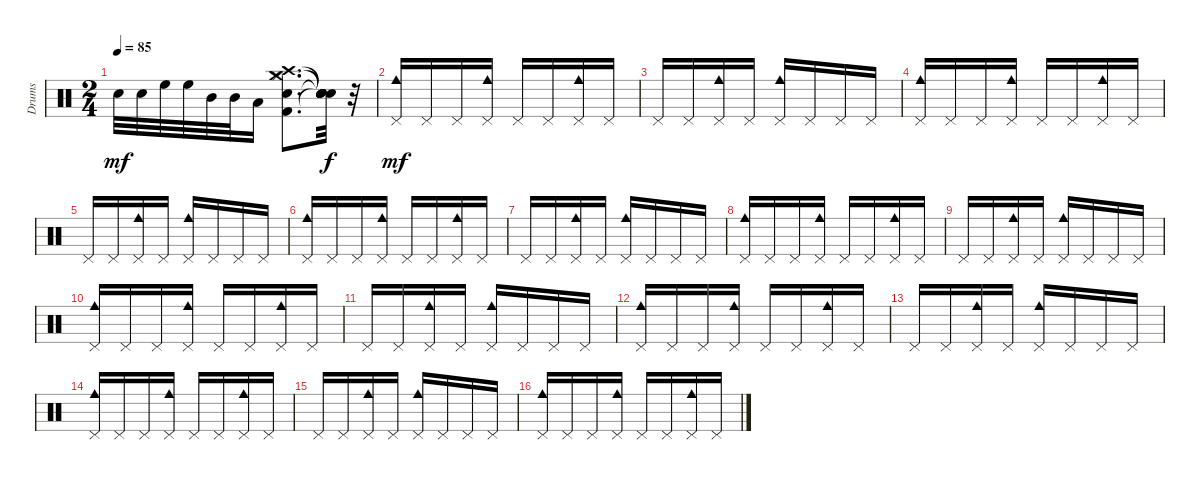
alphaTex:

\track ("Drums" "Drums") {instrument percussion}
\staff {score}
\articulation defaults
\ts (2 4)
\tempo 85
\clef neutral
\ks c "Snare (hit) 2".32{dy mf} "Snare (hit) 2".32 "High Floor Tom (hit)".32 "High Floor Tom (hit)".32 "Mid Tom (hit)".32 "Mid Tom (hit)".32 "Low Floor Tom (hit)".16
("Hi-Hat (closed)" "Crash medium (hit)" "Snare (hit) 2" "Kick (hit) 2" "Crash high (hit)").8{d} ("Snare (hit)"{t} "Snare (hit)"{t} "Snare (hit)"{t} "Snare (hit)"{t} "Snare (hit)"{t}).32{dy f} r.32 |
("Pedal Hi-Hat (hit)" "Cowbell medium (hit)").16{dy mf} "Pedal Hi-Hat (hit)".16 "Pedal Hi-Hat (hit)".16 ("Pedal Hi-Hat (hit)" "Cowbell medium (hit)").16 "Pedal Hi-Hat (hit)".16 "Pedal Hi-Hat (hit)".16 ("Pedal Hi-Hat (hit)" "Cowbell medium (hit)").16 "Pedal Hi-Hat (hit)".16 |
"Pedal Hi-Hat (hit)".16 "Pedal Hi-Hat (hit)".16 ("Pedal Hi-Hat (hit)" "Cowbell medium (hit)").16 "Pedal Hi-Hat (hit)".16 ("Pedal Hi-Hat (hit)" "Cowbell medium (hit)").16 "Pedal Hi-Hat (hit)".16 "Pedal Hi-Hat (hit)".16 "Pedal Hi-Hat (hit)".16 |
("Pedal Hi-Hat (hit)" "Cowbell medium (hit)").16 "Pedal Hi-Hat (hit)".16 "Pedal Hi-Hat (hit)".16 ("Pedal Hi-Hat (hit)" "Cowbell medium (hit)").16 "Pedal Hi-Hat (hit)".16 "Pedal Hi-Hat (hit)".16 ("Pedal Hi-Hat (hit)" "Cowbell medium (hit)").16 "Pedal Hi-Hat (hit)".16 |
"Pedal Hi-Hat (hit)".16 "Pedal Hi-Hat (hit)".16 ("Pedal Hi-Hat (hit)" "Cowbell medium (hit)").16 "Pedal Hi-Hat (hit)".16 ("Pedal Hi-Hat (hit)" "Cowbell medium (hit)").16 "Pedal Hi-Hat (hit)".16 "Pedal Hi-Hat (hit)".16 "Pedal Hi-Hat (hit)".16 |
("Pedal Hi-Hat (hit)" "Cowbell medium (hit)").16 "Pedal Hi-Hat (hit)".16 "Pedal Hi-Hat (hit)".16 ("Pedal Hi-Hat (hit)" "Cowbell medium (hit)").16 "Pedal Hi-Hat (hit)".16 "Pedal Hi-Hat (hit)".16 ("Pedal Hi-Hat (hit)" "Cowbell medium (hit)").16 "Pedal Hi-Hat (hit)".16 |
"Pedal Hi-Hat (hit)".16 "Pedal Hi-Hat (hit)".16 ("Pedal Hi-Hat (hit)" "Cowbell medium (hit)").16 "Pedal Hi-Hat (hit)".16 ("Pedal Hi-Hat (hit)" "Cowbell medium (hit)").16 "Pedal Hi-Hat (hit)".16 "Pedal Hi-Hat (hit)".16 "Pedal Hi-Hat (hit)".16 |
("Pedal Hi-Hat (hit)" "Cowbell medium (hit)").16 "Pedal Hi-Hat (hit)".16 "Pedal Hi-Hat (hit)".16 ("Pedal Hi-Hat (hit)" "Cowbell medium (hit)").16 "Pedal Hi-Hat (hit)".16 "Pedal Hi-Hat (hit)".16 ("Cowbell medium (hit)" "Pedal Hi-Hat (hit)").16 "Pedal Hi-Hat (hit)".16 |
"Pedal Hi-Hat (hit)".16 "Pedal Hi-Hat (hit)".16 ("Pedal Hi-Hat (hit)" "Cowbell medium (hit)").16 "Pedal Hi-Hat (hit)".16 ("Pedal Hi-Hat (hit)" "Cowbell medium (hit)").16 "Pedal Hi-Hat (hit)".16 "Pedal Hi-Hat (hit)".16 "Pedal Hi-Hat (hit)".16 |
("Cowbell medium (hit)" "Pedal Hi-Hat (hit)").16 "Pedal Hi-Hat (hit)".16 "Pedal Hi-Hat (hit)".16 ("Pedal Hi-Hat (hit)" "Cowbell medium (hit)").16 "Pedal Hi-Hat (hit)".16 "Pedal Hi-Hat (hit)".16 ("Pedal Hi-Hat (hit)" "Cowbell medium (hit)").16 "Pedal Hi-Hat (hit)".16 |
"Pedal Hi-Hat (hit)".16 "Pedal Hi-Hat (hit)".16 ("Pedal Hi-Hat (hit)" "Cowbell medium (hit)").16 "Pedal Hi-Hat (hit)".16 ("Pedal Hi-Hat (hit)" "Cowbell medium (hit)").16 "Pedal Hi-Hat (hit)".16 "Pedal Hi-Hat (hit)".16 "Pedal Hi-Hat (hit)".16 |
("Pedal Hi-Hat (hit)" "Cowbell medium (hit)").16 "Pedal Hi-Hat (hit)".16 "Pedal Hi-Hat (hit)".16 ("Pedal Hi-Hat (hit)" "Cowbell medium (hit)").16 "Pedal Hi-Hat (hit)".16 "Pedal Hi-Hat (hit)".16 ("Pedal Hi-Hat (hit)" "Cowbell medium (hit)").16 "Pedal Hi-Hat (hit)".16 |
"Pedal Hi-Hat (hit)".16 "Pedal Hi-Hat (hit)".16 ("Pedal Hi-Hat (hit)" "Cowbell medium (hit)").16 "Pedal Hi-Hat (hit)".16 ("Pedal Hi-Hat (hit)" "Cowbell medium (hit)").16 "Pedal Hi-Hat (hit)".16 "Pedal Hi-Hat (hit)".16 "Pedal Hi-Hat (hit)".16 |
("Pedal Hi-Hat (hit)" "Cowbell medium (hit)").16 "Pedal Hi-Hat (hit)".16 "Pedal Hi-Hat (hit)".16 ("Pedal Hi-Hat (hit)" "Cowbell medium (hit)").16 "Pedal Hi-Hat (hit)".16 "Pedal Hi-Hat (hit)".16 ("Pedal Hi-Hat (hit)" "Cowbell medium (hit)").16 "Pedal Hi-Hat (hit)".16 |
"Pedal Hi-Hat (hit)".16 "Pedal Hi-Hat (hit)".16 ("Pedal Hi-Hat (hit)" "Cowbell medium (hit)").16 "Pedal Hi-Hat (hit)".16 ("Pedal Hi-Hat (hit)" "Cowbell medium (hit)").16 "Pedal Hi-Hat (hit)".16 "Pedal Hi-Hat (hit)".16 "Pedal Hi-Hat (hit)".16 |
("Pedal Hi-Hat (hit)" "Cowbell medium (hit)").16 "Pedal Hi-Hat (hit)".16 "Pedal Hi-Hat (hit)".16 ("Pedal Hi-Hat (hit)" "Cowbell medium (hit)").16 "Pedal Hi-Hat (hit)".16 "Pedal Hi-Hat (hit)".16 ("Cowbell medium (hit)" "Pedal Hi-Hat (hit)").16 "Pedal Hi-Hat (hit)".16
